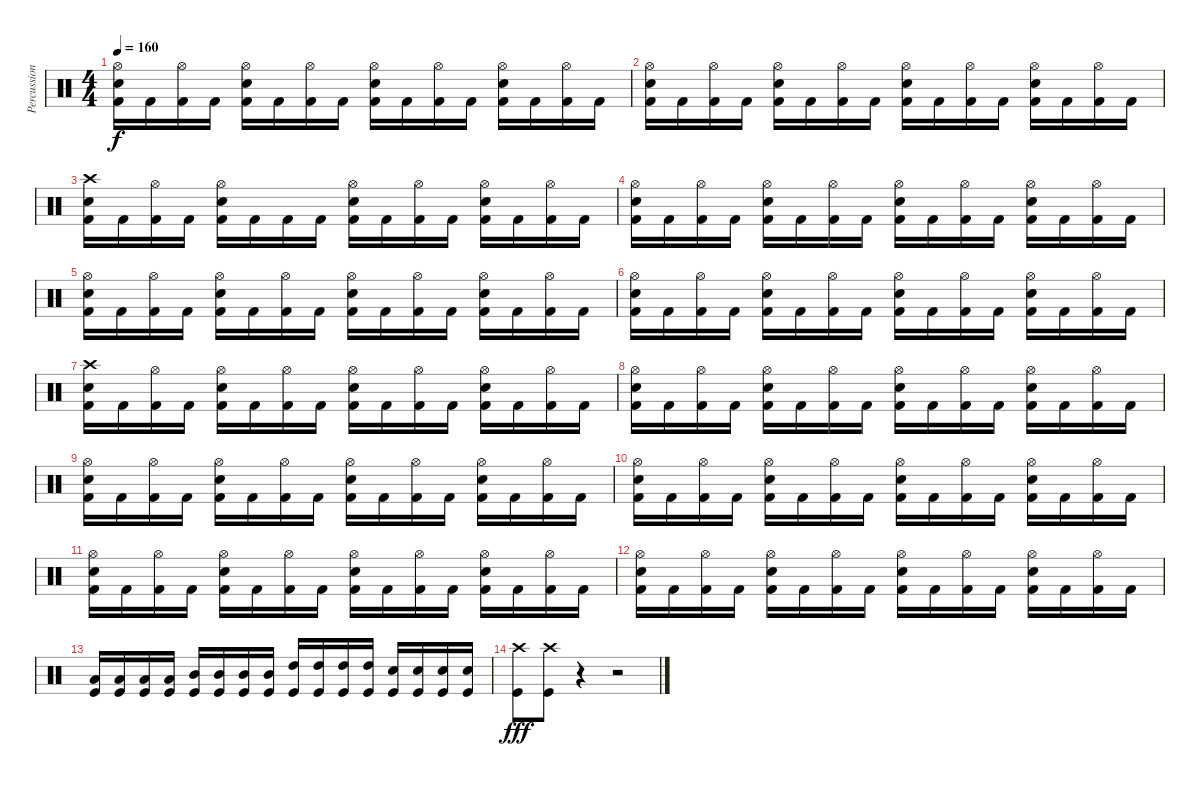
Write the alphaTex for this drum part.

\track ("Percussioni" "Percussion") {instrument percussion}
\staff {score}
\articulation defaults
\ts (4 4)
\tempo 160
\clef neutral
\ks c
("Hi-Hat (open)" "Snare (hit) 2" "Kick (hit) 2").16{dy f} "Kick (hit) 2".16 ("Hi-Hat (open)" "Kick (hit) 2").16 "Kick (hit) 2".16 ("Hi-Hat (open)" "Snare (hit) 2" "Kick (hit) 2").16 "Kick (hit) 2".16 ("Hi-Hat (open)" "Kick (hit) 2").16 "Kick (hit) 2".16 ("Hi-Hat (open)" "Snare (hit) 2" "Kick (hit) 2").16 "Kick (hit) 2".16 ("Hi-Hat (open)" "Kick (hit) 2").16 "Kick (hit) 2".16 ("Hi-Hat (open)" "Snare (hit) 2" "Kick (hit) 2").16 "Kick (hit) 2".16 ("Hi-Hat (open)" "Kick (hit) 2").16 "Kick (hit) 2".16 |
("Hi-Hat (open)" "Snare (hit) 2" "Kick (hit) 2").16 "Kick (hit) 2".16 ("Hi-Hat (open)" "Kick (hit) 2").16 "Kick (hit) 2".16 ("Hi-Hat (open)" "Snare (hit) 2" "Kick (hit) 2").16 "Kick (hit) 2".16 ("Hi-Hat (open)" "Kick (hit) 2").16 "Kick (hit) 2".16 ("Hi-Hat (open)" "Snare (hit) 2" "Kick (hit) 2").16 "Kick (hit) 2".16 ("Hi-Hat (open)" "Kick (hit) 2").16 "Kick (hit) 2".16 ("Hi-Hat (open)" "Snare (hit) 2" "Kick (hit) 2").16 "Kick (hit) 2".16 ("Hi-Hat (open)" "Kick (hit) 2").16 "Kick (hit) 2".16 |
("Crash high (hit)" "Snare (hit) 2" "Kick (hit) 2").16 "Kick (hit) 2".16 ("Hi-Hat (open)" "Kick (hit) 2").16 "Kick (hit) 2".16 ("Hi-Hat (open)" "Snare (hit) 2" "Kick (hit) 2").16 "Kick (hit) 2".16 "Kick (hit) 2".16 "Kick (hit) 2".16 ("Hi-Hat (open)" "Snare (hit) 2" "Kick (hit) 2").16 "Kick (hit) 2".16 ("Hi-Hat (open)" "Kick (hit) 2").16 "Kick (hit) 2".16 ("Hi-Hat (open)" "Snare (hit) 2" "Kick (hit) 2").16 "Kick (hit) 2".16 ("Hi-Hat (open)" "Kick (hit) 2").16 "Kick (hit) 2".16 |
("Hi-Hat (open)" "Snare (hit) 2" "Kick (hit) 2").16 "Kick (hit) 2".16 ("Hi-Hat (open)" "Kick (hit) 2").16 "Kick (hit) 2".16 ("Hi-Hat (open)" "Snare (hit) 2" "Kick (hit) 2").16 "Kick (hit) 2".16 ("Hi-Hat (open)" "Kick (hit) 2").16 "Kick (hit) 2".16 ("Hi-Hat (open)" "Snare (hit) 2" "Kick (hit) 2").16 "Kick (hit) 2".16 ("Hi-Hat (open)" "Kick (hit) 2").16 "Kick (hit) 2".16 ("Hi-Hat (open)" "Snare (hit) 2" "Kick (hit) 2").16 "Kick (hit) 2".16 ("Hi-Hat (open)" "Kick (hit) 2").16 "Kick (hit) 2".16 |
("Hi-Hat (open)" "Snare (hit) 2" "Kick (hit) 2").16 "Kick (hit) 2".16 ("Hi-Hat (open)" "Kick (hit) 2").16 "Kick (hit) 2".16 ("Hi-Hat (open)" "Snare (hit) 2" "Kick (hit) 2").16 "Kick (hit) 2".16 ("Hi-Hat (open)" "Kick (hit) 2").16 "Kick (hit) 2".16 ("Hi-Hat (open)" "Snare (hit) 2" "Kick (hit) 2").16 "Kick (hit) 2".16 ("Hi-Hat (open)" "Kick (hit) 2").16 "Kick (hit) 2".16 ("Hi-Hat (open)" "Snare (hit) 2" "Kick (hit) 2").16 "Kick (hit) 2".16 ("Hi-Hat (open)" "Kick (hit) 2").16 "Kick (hit) 2".16 |
("Hi-Hat (open)" "Snare (hit) 2" "Kick (hit) 2").16 "Kick (hit) 2".16 ("Hi-Hat (open)" "Kick (hit) 2").16 "Kick (hit) 2".16 ("Hi-Hat (open)" "Snare (hit) 2" "Kick (hit) 2").16 "Kick (hit) 2".16 ("Hi-Hat (open)" "Kick (hit) 2").16 "Kick (hit) 2".16 ("Hi-Hat (open)" "Snare (hit) 2" "Kick (hit) 2").16 "Kick (hit) 2".16 ("Hi-Hat (open)" "Kick (hit) 2").16 "Kick (hit) 2".16 ("Hi-Hat (open)" "Snare (hit) 2" "Kick (hit) 2").16 "Kick (hit) 2".16 ("Hi-Hat (open)" "Kick (hit) 2").16 "Kick (hit) 2".16 |
("Crash high (hit)" "Snare (hit) 2" "Kick (hit) 2").16 "Kick (hit) 2".16 ("Hi-Hat (open)" "Kick (hit) 2").16 "Kick (hit) 2".16 ("Hi-Hat (open)" "Snare (hit) 2" "Kick (hit) 2").16 "Kick (hit) 2".16 ("Hi-Hat (open)" "Kick (hit) 2").16 "Kick (hit) 2".16 ("Hi-Hat (open)" "Snare (hit) 2" "Kick (hit) 2").16 "Kick (hit) 2".16 ("Hi-Hat (open)" "Kick (hit) 2").16 "Kick (hit) 2".16 ("Hi-Hat (open)" "Snare (hit) 2" "Kick (hit) 2").16 "Kick (hit) 2".16 ("Hi-Hat (open)" "Kick (hit) 2").16 "Kick (hit) 2".16 |
("Hi-Hat (open)" "Snare (hit) 2" "Kick (hit) 2").16 "Kick (hit) 2".16 ("Hi-Hat (open)" "Kick (hit) 2").16 "Kick (hit) 2".16 ("Hi-Hat (open)" "Snare (hit) 2" "Kick (hit) 2").16 "Kick (hit) 2".16 ("Hi-Hat (open)" "Kick (hit) 2").16 "Kick (hit) 2".16 ("Hi-Hat (open)" "Snare (hit) 2" "Kick (hit) 2").16 "Kick (hit) 2".16 ("Hi-Hat (open)" "Kick (hit) 2").16 "Kick (hit) 2".16 ("Hi-Hat (open)" "Snare (hit) 2" "Kick (hit) 2").16 "Kick (hit) 2".16 ("Hi-Hat (open)" "Kick (hit) 2").16 "Kick (hit) 2".16 |
("Hi-Hat (open)" "Snare (hit) 2" "Kick (hit) 2").16 "Kick (hit) 2".16 ("Hi-Hat (open)" "Kick (hit) 2").16 "Kick (hit) 2".16 ("Hi-Hat (open)" "Snare (hit) 2" "Kick (hit) 2").16 "Kick (hit) 2".16 ("Hi-Hat (open)" "Kick (hit) 2").16 "Kick (hit) 2".16 ("Hi-Hat (open)" "Snare (hit) 2" "Kick (hit) 2").16 "Kick (hit) 2".16 ("Hi-Hat (open)" "Kick (hit) 2").16 "Kick (hit) 2".16 ("Hi-Hat (open)" "Snare (hit) 2" "Kick (hit) 2").16 "Kick (hit) 2".16 ("Hi-Hat (open)" "Kick (hit) 2").16 "Kick (hit) 2".16 |
("Hi-Hat (open)" "Snare (hit) 2" "Kick (hit) 2").16 "Kick (hit) 2".16 ("Hi-Hat (open)" "Kick (hit) 2").16 "Kick (hit) 2".16 ("Hi-Hat (open)" "Snare (hit) 2" "Kick (hit) 2").16 "Kick (hit) 2".16 ("Hi-Hat (open)" "Kick (hit) 2").16 "Kick (hit) 2".16 ("Hi-Hat (open)" "Snare (hit) 2" "Kick (hit) 2").16 "Kick (hit) 2".16 ("Hi-Hat (open)" "Kick (hit) 2").16 "Kick (hit) 2".16 ("Hi-Hat (open)" "Snare (hit) 2" "Kick (hit) 2").16 "Kick (hit) 2".16 ("Hi-Hat (open)" "Kick (hit) 2").16 "Kick (hit) 2".16 |
("Hi-Hat (open)" "Snare (hit) 2" "Kick (hit) 2").16 "Kick (hit) 2".16 ("Hi-Hat (open)" "Kick (hit) 2").16 "Kick (hit) 2".16 ("Hi-Hat (open)" "Snare (hit) 2" "Kick (hit) 2").16 "Kick (hit) 2".16 ("Hi-Hat (open)" "Kick (hit) 2").16 "Kick (hit) 2".16 ("Hi-Hat (open)" "Snare (hit) 2" "Kick (hit) 2").16 "Kick (hit) 2".16 ("Hi-Hat (open)" "Kick (hit) 2").16 "Kick (hit) 2".16 ("Hi-Hat (open)" "Snare (hit) 2" "Kick (hit) 2").16 "Kick (hit) 2".16 ("Hi-Hat (open)" "Kick (hit) 2").16 "Kick (hit) 2".16 |
("Hi-Hat (open)" "Snare (hit) 2" "Kick (hit) 2").16 "Kick (hit) 2".16 ("Hi-Hat (open)" "Kick (hit) 2").16 "Kick (hit) 2".16 ("Hi-Hat (open)" "Snare (hit) 2" "Kick (hit) 2").16 "Kick (hit) 2".16 ("Hi-Hat (open)" "Kick (hit) 2").16 "Kick (hit) 2".16 ("Hi-Hat (open)" "Snare (hit) 2" "Kick (hit) 2").16 "Kick (hit) 2".16 ("Hi-Hat (open)" "Kick (hit) 2").16 "Kick (hit) 2".16 ("Hi-Hat (open)" "Snare (hit) 2" "Kick (hit) 2").16 "Kick (hit) 2".16 ("Hi-Hat (open)" "Kick (hit) 2").16 "Kick (hit) 2".16 |
("Low Tom (hit)" "Kick (hit)").16 ("Low Tom (hit)" "Kick (hit)").16 ("Low Tom (hit)" "Kick (hit)").16 ("Low Tom (hit)" "Kick (hit)").16 ("Mid Tom (hit)" "Kick (hit)").16 ("Mid Tom (hit)" "Kick (hit)").16 ("Mid Tom (hit)" "Kick (hit)").16 ("Mid Tom (hit)" "Kick (hit)").16 ("High Tom (hit)" "Kick (hit)").16 ("High Tom (hit)" "Kick (hit)").16 ("High Tom (hit)" "Kick (hit)").16 ("High Tom (hit)" "Kick (hit)").16 ("Snare (hit) 2" "Kick (hit)").16 ("Snare (hit) 2" "Kick (hit)").16 ("Snare (hit) 2" "Kick (hit)").16 ("Snare (hit) 2" "Kick (hit)").16 |
("Crash high (hit)" "Kick (hit)").8{dy fff} ("Crash high (hit)" "Kick (hit)").8 r.4 r.2
